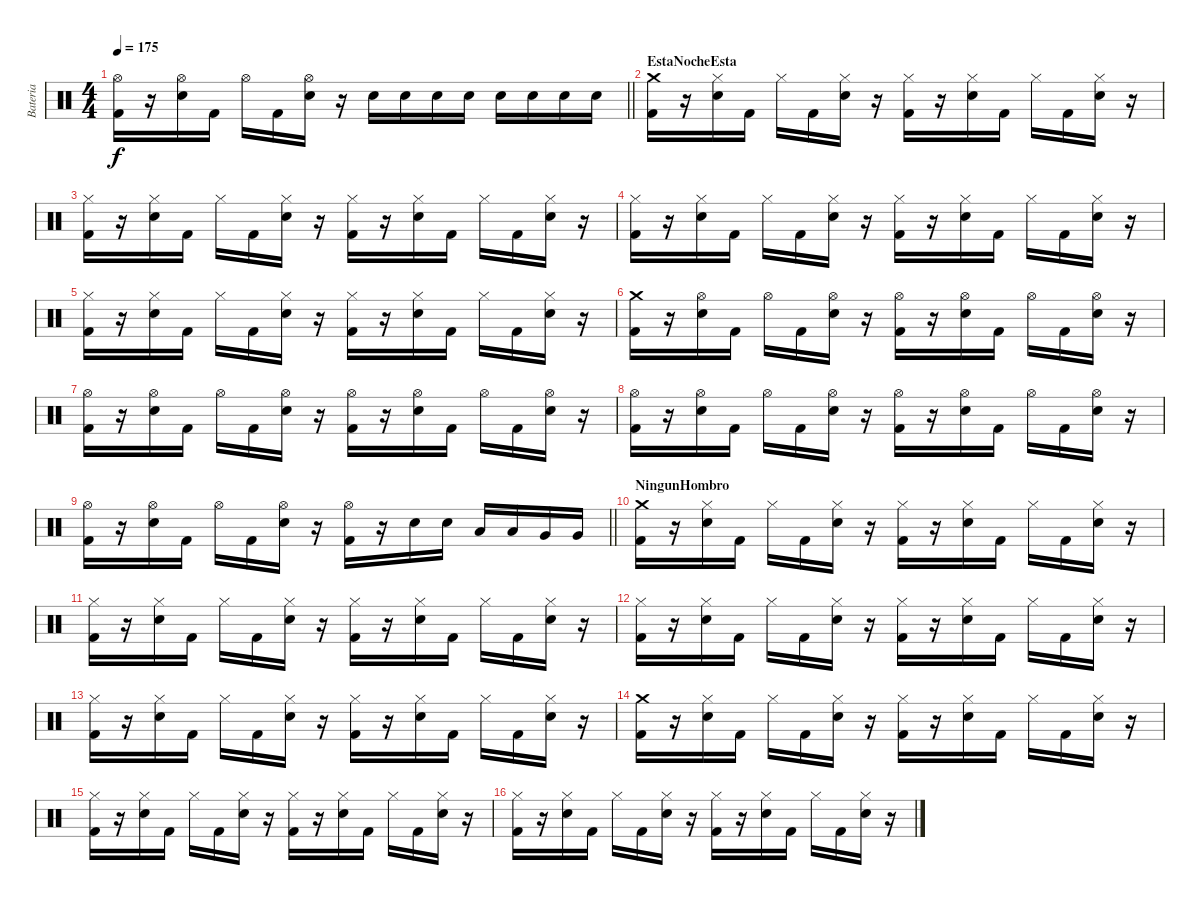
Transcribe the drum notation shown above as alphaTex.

\track ("Bateria" "Bateria") {instrument percussion}
\staff {score}
\articulation defaults
\ts (4 4)
\tempo 175
\clef neutral
\barLineRight lightlight
\ks c
("Hi-Hat (open)" "Kick (hit) 2").16{dy f} r.16 ("Hi-Hat (open)" "Snare (hit) 2").16 "Kick (hit) 2".16 "Hi-Hat (open)".16 "Kick (hit) 2".16 ("Hi-Hat (open)" "Snare (hit) 2").16 r.16 "Snare (hit) 2".16 "Snare (hit) 2".16 "Snare (hit) 2".16 "Snare (hit) 2".16 "Snare (hit) 2".16 "Snare (hit) 2".16 "Snare (hit) 2".16 "Snare (hit) 2".16 |
\section ("" "EstaNocheEsta")
("Crash medium (hit)" "Kick (hit) 2").16 r.16 ("Hi-Hat (closed)" "Snare (hit) 2").16 "Kick (hit) 2".16 "Hi-Hat (closed)".16 "Kick (hit) 2".16 ("Hi-Hat (closed)" "Snare (hit) 2").16 r.16 ("Hi-Hat (closed)" "Kick (hit) 2").16 r.16 ("Hi-Hat (closed)" "Snare (hit) 2").16 "Kick (hit) 2".16 "Hi-Hat (closed)".16 "Kick (hit) 2".16 ("Hi-Hat (closed)" "Snare (hit) 2").16 r.16 |
("Hi-Hat (closed)" "Kick (hit) 2").16 r.16 ("Hi-Hat (closed)" "Snare (hit) 2").16 "Kick (hit) 2".16 "Hi-Hat (closed)".16 "Kick (hit) 2".16 ("Hi-Hat (closed)" "Snare (hit) 2").16 r.16 ("Hi-Hat (closed)" "Kick (hit) 2").16 r.16 ("Hi-Hat (closed)" "Snare (hit) 2").16 "Kick (hit) 2".16 "Hi-Hat (closed)".16 "Kick (hit) 2".16 ("Hi-Hat (closed)" "Snare (hit) 2").16 r.16 |
("Hi-Hat (closed)" "Kick (hit) 2").16 r.16 ("Hi-Hat (closed)" "Snare (hit) 2").16 "Kick (hit) 2".16 "Hi-Hat (closed)".16 "Kick (hit) 2".16 ("Hi-Hat (closed)" "Snare (hit) 2").16 r.16 ("Hi-Hat (closed)" "Kick (hit) 2").16 r.16 ("Hi-Hat (closed)" "Snare (hit) 2").16 "Kick (hit) 2".16 "Hi-Hat (closed)".16 "Kick (hit) 2".16 ("Hi-Hat (closed)" "Snare (hit) 2").16 r.16 |
("Hi-Hat (closed)" "Kick (hit) 2").16 r.16 ("Hi-Hat (closed)" "Snare (hit) 2").16 "Kick (hit) 2".16 "Hi-Hat (closed)".16 "Kick (hit) 2".16 ("Hi-Hat (closed)" "Snare (hit) 2").16 r.16 ("Hi-Hat (closed)" "Kick (hit) 2").16 r.16 ("Hi-Hat (closed)" "Snare (hit) 2").16 "Kick (hit) 2".16 "Hi-Hat (closed)".16 "Kick (hit) 2".16 ("Hi-Hat (closed)" "Snare (hit) 2").16 r.16 |
("Crash medium (hit)" "Kick (hit) 2").16 r.16 ("Hi-Hat (open)" "Snare (hit) 2").16 "Kick (hit) 2".16 "Hi-Hat (open)".16 "Kick (hit) 2".16 ("Hi-Hat (open)" "Snare (hit) 2").16 r.16 ("Hi-Hat (open)" "Kick (hit) 2").16 r.16 ("Hi-Hat (open)" "Snare (hit) 2").16 "Kick (hit) 2".16 "Hi-Hat (open)".16 "Kick (hit) 2".16 ("Hi-Hat (open)" "Snare (hit) 2").16 r.16 |
("Hi-Hat (open)" "Kick (hit) 2").16 r.16 ("Hi-Hat (open)" "Snare (hit) 2").16 "Kick (hit) 2".16 "Hi-Hat (open)".16 "Kick (hit) 2".16 ("Hi-Hat (open)" "Snare (hit) 2").16 r.16 ("Hi-Hat (open)" "Kick (hit) 2").16 r.16 ("Hi-Hat (open)" "Snare (hit) 2").16 "Kick (hit) 2".16 "Hi-Hat (open)".16 "Kick (hit) 2".16 ("Hi-Hat (open)" "Snare (hit) 2").16 r.16 |
("Hi-Hat (open)" "Kick (hit) 2").16 r.16 ("Hi-Hat (open)" "Snare (hit) 2").16 "Kick (hit) 2".16 "Hi-Hat (open)".16 "Kick (hit) 2".16 ("Hi-Hat (open)" "Snare (hit) 2").16 r.16 ("Hi-Hat (open)" "Kick (hit) 2").16 r.16 ("Hi-Hat (open)" "Snare (hit) 2").16 "Kick (hit) 2".16 "Hi-Hat (open)".16 "Kick (hit) 2".16 ("Hi-Hat (open)" "Snare (hit) 2").16 r.16 |
\barLineRight lightlight
("Hi-Hat (open)" "Kick (hit) 2").16 r.16 ("Hi-Hat (open)" "Snare (hit) 2").16 "Kick (hit) 2".16 "Hi-Hat (open)".16 "Kick (hit) 2".16 ("Hi-Hat (open)" "Snare (hit) 2").16 r.16 ("Hi-Hat (open)" "Kick (hit) 2").16 r.16 "Snare (hit) 2".16 "Snare (hit) 2".16 "Low Tom (hit)".16 "Low Tom (hit)".16 "Very Low Tom (hit)".16 "Very Low Tom (hit)".16 |
\section ("" "NingunHombro")
("Crash medium (hit)" "Kick (hit) 2").16 r.16 ("Hi-Hat (closed)" "Snare (hit) 2").16 "Kick (hit) 2".16 "Hi-Hat (closed)".16 "Kick (hit) 2".16 ("Hi-Hat (closed)" "Snare (hit) 2").16 r.16 ("Hi-Hat (closed)" "Kick (hit) 2").16 r.16 ("Hi-Hat (closed)" "Snare (hit) 2").16 "Kick (hit) 2".16 "Hi-Hat (closed)".16 "Kick (hit) 2".16 ("Hi-Hat (closed)" "Snare (hit) 2").16 r.16 |
("Hi-Hat (closed)" "Kick (hit) 2").16 r.16 ("Hi-Hat (closed)" "Snare (hit) 2").16 "Kick (hit) 2".16 "Hi-Hat (closed)".16 "Kick (hit) 2".16 ("Hi-Hat (closed)" "Snare (hit) 2").16 r.16 ("Hi-Hat (closed)" "Kick (hit) 2").16 r.16 ("Hi-Hat (closed)" "Snare (hit) 2").16 "Kick (hit) 2".16 "Hi-Hat (closed)".16 "Kick (hit) 2".16 ("Hi-Hat (closed)" "Snare (hit) 2").16 r.16 |
("Hi-Hat (closed)" "Kick (hit) 2").16 r.16 ("Hi-Hat (closed)" "Snare (hit) 2").16 "Kick (hit) 2".16 "Hi-Hat (closed)".16 "Kick (hit) 2".16 ("Hi-Hat (closed)" "Snare (hit) 2").16 r.16 ("Hi-Hat (closed)" "Kick (hit) 2").16 r.16 ("Hi-Hat (closed)" "Snare (hit) 2").16 "Kick (hit) 2".16 "Hi-Hat (closed)".16 "Kick (hit) 2".16 ("Hi-Hat (closed)" "Snare (hit) 2").16 r.16 |
("Hi-Hat (closed)" "Kick (hit) 2").16 r.16 ("Hi-Hat (closed)" "Snare (hit) 2").16 "Kick (hit) 2".16 "Hi-Hat (closed)".16 "Kick (hit) 2".16 ("Hi-Hat (closed)" "Snare (hit) 2").16 r.16 ("Hi-Hat (closed)" "Kick (hit) 2").16 r.16 ("Hi-Hat (closed)" "Snare (hit) 2").16 "Kick (hit) 2".16 "Hi-Hat (closed)".16 "Kick (hit) 2".16 ("Hi-Hat (closed)" "Snare (hit) 2").16 r.16 |
("Crash medium (hit)" "Kick (hit) 2").16 r.16 ("Hi-Hat (closed)" "Snare (hit) 2").16 "Kick (hit) 2".16 "Hi-Hat (closed)".16 "Kick (hit) 2".16 ("Hi-Hat (closed)" "Snare (hit) 2").16 r.16 ("Hi-Hat (closed)" "Kick (hit) 2").16 r.16 ("Hi-Hat (closed)" "Snare (hit) 2").16 "Kick (hit) 2".16 "Hi-Hat (closed)".16 "Kick (hit) 2".16 ("Hi-Hat (closed)" "Snare (hit) 2").16 r.16 |
("Hi-Hat (closed)" "Kick (hit) 2").16 r.16 ("Hi-Hat (closed)" "Snare (hit) 2").16 "Kick (hit) 2".16 "Hi-Hat (closed)".16 "Kick (hit) 2".16 ("Hi-Hat (closed)" "Snare (hit) 2").16 r.16 ("Hi-Hat (closed)" "Kick (hit) 2").16 r.16 ("Hi-Hat (closed)" "Snare (hit) 2").16 "Kick (hit) 2".16 "Hi-Hat (closed)".16 "Kick (hit) 2".16 ("Hi-Hat (closed)" "Snare (hit) 2").16 r.16 |
("Hi-Hat (closed)" "Kick (hit) 2").16 r.16 ("Hi-Hat (closed)" "Snare (hit) 2").16 "Kick (hit) 2".16 "Hi-Hat (closed)".16 "Kick (hit) 2".16 ("Hi-Hat (closed)" "Snare (hit) 2").16 r.16 ("Hi-Hat (closed)" "Kick (hit) 2").16 r.16 ("Hi-Hat (closed)" "Snare (hit) 2").16 "Kick (hit) 2".16 "Hi-Hat (closed)".16 "Kick (hit) 2".16 ("Hi-Hat (closed)" "Snare (hit) 2").16 r.16
